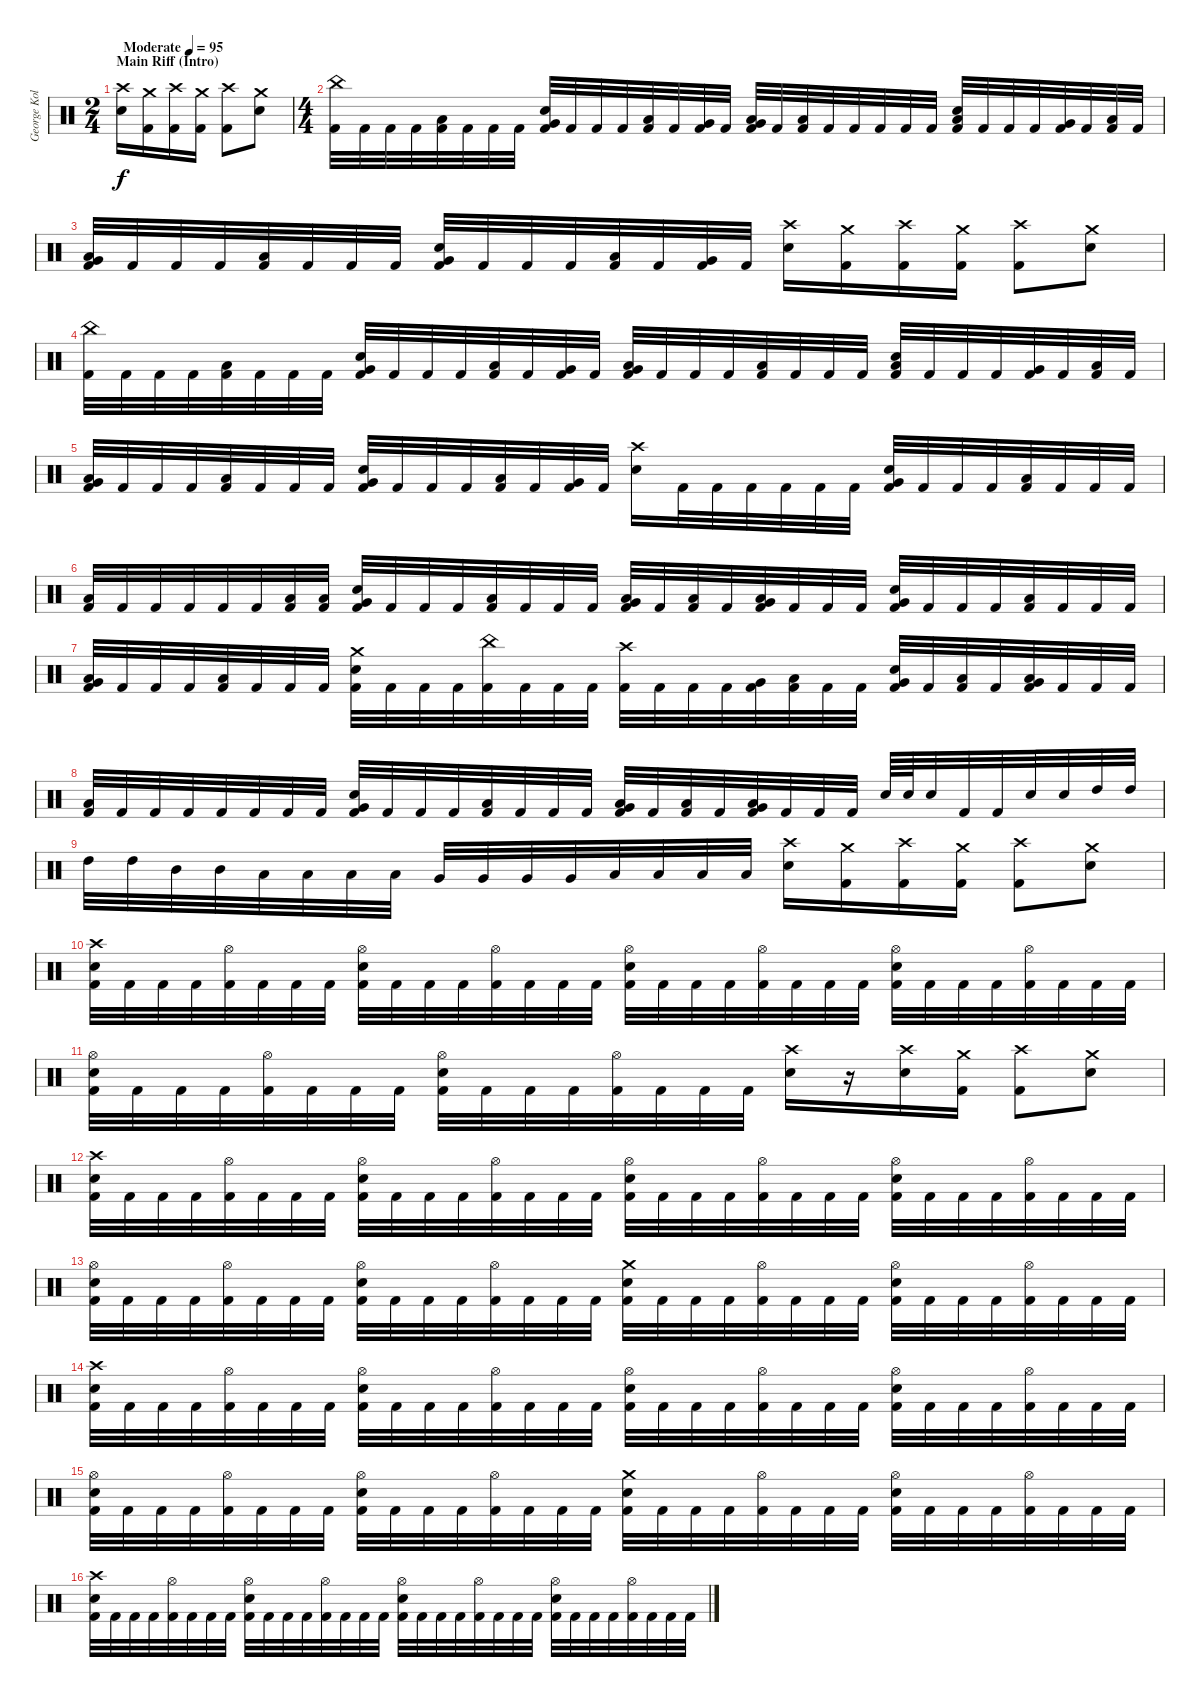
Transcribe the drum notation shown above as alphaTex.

\track ("George Kollias" "George Kol") {instrument percussion}
\staff {score}
\articulation defaults
\ts (2 4)
\section ("" "Main Riff (Intro)")
\tempo (95 "Moderate")
\clef neutral
\ks c
("Crash high (hit)" "Snare (hit) 2").16{dy f} ("Crash medium (hit)" "Kick (hit) 2").16 ("Crash high (hit)" "Kick (hit) 2").16 ("Crash medium (hit)" "Kick (hit) 2").16 ("Crash high (hit)" "Kick (hit) 2").8 ("Crash medium (hit)" "Snare (hit) 2").8 |
\ts (4 4)
("China (hit)" "Kick (hit) 2").32 "Kick (hit) 2".32 "Kick (hit) 2".32 "Kick (hit) 2".32 ("Low Floor Tom (hit)" "Kick (hit) 2").32 "Kick (hit) 2".32 "Kick (hit) 2".32 "Kick (hit) 2".32 ("Very Low Tom (hit)" "Snare (hit) 2" "Kick (hit) 2").32 "Kick (hit) 2".32 "Kick (hit) 2".32 "Kick (hit) 2".32 ("Low Tom (hit)" "Kick (hit) 2").32 "Kick (hit) 2".32 ("Very Low Tom (hit)" "Kick (hit) 2").32 "Kick (hit) 2".32 ("Very Low Tom (hit)" "Low Floor Tom (hit)" "Kick (hit) 2").32 "Kick (hit) 2".32 ("Low Floor Tom (hit)" "Kick (hit) 2").32 "Kick (hit) 2".32 "Kick (hit) 2".32 "Kick (hit) 2".32 "Kick (hit) 2".32 "Kick (hit) 2".32 ("Low Tom (hit)" "Snare (hit) 2" "Kick (hit) 2").32 "Kick (hit) 2".32 "Kick (hit) 2".32 "Kick (hit) 2".32 ("Very Low Tom (hit)" "Kick (hit) 2").32 "Kick (hit) 2".32 ("Low Floor Tom (hit)" "Kick (hit) 2").32 "Kick (hit) 2".32 |
("Very Low Tom (hit)" "Low Floor Tom (hit)" "Kick (hit) 2").32 "Kick (hit) 2".32 "Kick (hit) 2".32 "Kick (hit) 2".32 ("Low Floor Tom (hit)" "Kick (hit) 2").32 "Kick (hit) 2".32 "Kick (hit) 2".32 "Kick (hit) 2".32 ("Very Low Tom (hit)" "Snare (hit) 2" "Kick (hit) 2").32 "Kick (hit) 2".32 "Kick (hit) 2".32 "Kick (hit) 2".32 ("Low Tom (hit)" "Kick (hit) 2").32 "Kick (hit) 2".32 ("Very Low Tom (hit)" "Kick (hit) 2").32 "Kick (hit) 2".32 ("Crash high (hit)" "Snare (hit) 2").16 ("Crash medium (hit)" "Kick (hit) 2").16 ("Crash high (hit)" "Kick (hit) 2").16 ("Crash medium (hit)" "Kick (hit) 2").16 ("Crash high (hit)" "Kick (hit) 2").8 ("Crash medium (hit)" "Snare (hit) 2").8 |
("China (hit)" "Kick (hit) 2").32 "Kick (hit) 2".32 "Kick (hit) 2".32 "Kick (hit) 2".32 ("Low Floor Tom (hit)" "Kick (hit) 2").32 "Kick (hit) 2".32 "Kick (hit) 2".32 "Kick (hit) 2".32 ("Very Low Tom (hit)" "Snare (hit) 2" "Kick (hit) 2").32 "Kick (hit) 2".32 "Kick (hit) 2".32 "Kick (hit) 2".32 ("Low Tom (hit)" "Kick (hit) 2").32 "Kick (hit) 2".32 ("Very Low Tom (hit)" "Kick (hit) 2").32 "Kick (hit) 2".32 ("Very Low Tom (hit)" "Low Floor Tom (hit)" "Kick (hit) 2").32 "Kick (hit) 2".32 "Kick (hit) 2".32 "Kick (hit) 2".32 ("Low Floor Tom (hit)" "Kick (hit) 2").32 "Kick (hit) 2".32 "Kick (hit) 2".32 "Kick (hit) 2".32 ("Low Tom (hit)" "Snare (hit) 2" "Kick (hit) 2").32 "Kick (hit) 2".32 "Kick (hit) 2".32 "Kick (hit) 2".32 ("Very Low Tom (hit)" "Kick (hit) 2").32 "Kick (hit) 2".32 ("Low Floor Tom (hit)" "Kick (hit) 2").32 "Kick (hit) 2".32 |
("Very Low Tom (hit)" "Low Floor Tom (hit)" "Kick (hit) 2").32 "Kick (hit) 2".32 "Kick (hit) 2".32 "Kick (hit) 2".32 ("Low Floor Tom (hit)" "Kick (hit) 2").32 "Kick (hit) 2".32 "Kick (hit) 2".32 "Kick (hit) 2".32 ("Very Low Tom (hit)" "Snare (hit) 2" "Kick (hit) 2").32 "Kick (hit) 2".32 "Kick (hit) 2".32 "Kick (hit) 2".32 ("Low Tom (hit)" "Kick (hit) 2").32 "Kick (hit) 2".32 ("Very Low Tom (hit)" "Kick (hit) 2").32 "Kick (hit) 2".32 ("Crash high (hit)" "Snare (hit) 2").16 "Kick (hit) 2".32 "Kick (hit) 2".32 "Kick (hit) 2".32 "Kick (hit) 2".32 "Kick (hit) 2".32 "Kick (hit) 2".32 ("Very Low Tom (hit)" "Snare (hit) 2" "Kick (hit) 2").32 "Kick (hit) 2".32 "Kick (hit) 2".32 "Kick (hit) 2".32 ("Low Floor Tom (hit)" "Kick (hit) 2").32 "Kick (hit) 2".32 "Kick (hit) 2".32 "Kick (hit) 2".32 |
("Low Floor Tom (hit)" "Kick (hit) 2").32 "Kick (hit) 2".32 "Kick (hit) 2".32 "Kick (hit) 2".32 "Kick (hit) 2".32 "Kick (hit) 2".32 ("Low Floor Tom (hit)" "Kick (hit) 2").32 ("Low Floor Tom (hit)" "Kick (hit) 2").32 ("Very Low Tom (hit)" "Snare (hit) 2" "Kick (hit) 2").32 "Kick (hit) 2".32 "Kick (hit) 2".32 "Kick (hit) 2".32 ("Low Floor Tom (hit)" "Kick (hit) 2").32 "Kick (hit) 2".32 "Kick (hit) 2".32 "Kick (hit) 2".32 ("Very Low Tom (hit)" "Low Floor Tom (hit)" "Kick (hit) 2").32 "Kick (hit) 2".32 ("Low Floor Tom (hit)" "Kick (hit) 2").32 "Kick (hit) 2".32 ("Very Low Tom (hit)" "Low Floor Tom (hit)" "Kick (hit) 2").32 "Kick (hit) 2".32 "Kick (hit) 2".32 "Kick (hit) 2".32 ("Very Low Tom (hit)" "Snare (hit) 2" "Kick (hit) 2").32 "Kick (hit) 2".32 "Kick (hit) 2".32 "Kick (hit) 2".32 ("Low Floor Tom (hit)" "Kick (hit) 2").32 "Kick (hit) 2".32 "Kick (hit) 2".32 "Kick (hit) 2".32 |
("Very Low Tom (hit)" "Low Floor Tom (hit)" "Kick (hit) 2").32 "Kick (hit) 2".32 "Kick (hit) 2".32 "Kick (hit) 2".32 ("Low Floor Tom (hit)" "Kick (hit) 2").32 "Kick (hit) 2".32 "Kick (hit) 2".32 "Kick (hit) 2".32 ("Crash medium (hit)" "Snare (hit) 2" "Kick (hit) 2").32 "Kick (hit) 2".32 "Kick (hit) 2".32 "Kick (hit) 2".32 ("China (hit)" "Kick (hit) 2").32 "Kick (hit) 2".32 "Kick (hit) 2".32 "Kick (hit) 2".32 ("Crash high (hit)" "Kick (hit) 2").32 "Kick (hit) 2".32 "Kick (hit) 2".32 "Kick (hit) 2".32 ("Very Low Tom (hit)" "Kick (hit) 2").32 ("Low Floor Tom (hit)" "Kick (hit) 2").32 "Kick (hit) 2".32 "Kick (hit) 2".32 ("Very Low Tom (hit)" "Snare (hit) 2" "Kick (hit) 2").32 "Kick (hit) 2".32 ("Low Floor Tom (hit)" "Kick (hit) 2").32 "Kick (hit) 2".32 ("Very Low Tom (hit)" "Low Floor Tom (hit)" "Kick (hit) 2").32 "Kick (hit) 2".32 "Kick (hit) 2".32 "Kick (hit) 2".32 |
("Low Floor Tom (hit)" "Kick (hit) 2").32 "Kick (hit) 2".32 "Kick (hit) 2".32 "Kick (hit) 2".32 "Kick (hit) 2".32 "Kick (hit) 2".32 "Kick (hit) 2".32 "Kick (hit) 2".32 ("Very Low Tom (hit)" "Snare (hit) 2" "Kick (hit) 2").32 "Kick (hit) 2".32 "Kick (hit) 2".32 "Kick (hit) 2".32 ("Low Floor Tom (hit)" "Kick (hit) 2").32 "Kick (hit) 2".32 "Kick (hit) 2".32 "Kick (hit) 2".32 ("Very Low Tom (hit)" "Low Floor Tom (hit)" "Kick (hit) 2").32 "Kick (hit) 2".32 ("Low Floor Tom (hit)" "Kick (hit) 2").32 "Kick (hit) 2".32 ("Very Low Tom (hit)" "Low Floor Tom (hit)" "Kick (hit) 2").32 "Kick (hit) 2".32 "Kick (hit) 2".32 "Kick (hit) 2".32 "Snare (hit) 2".64 "Snare (hit) 2".64 "Snare (hit) 2".32 "Kick (hit) 2".32 "Kick (hit) 2".32 "Snare (hit) 2".32 "Snare (hit) 2".32 "High Tom (hit)".32 "High Tom (hit)".32 |
"High Tom (hit)".32 "High Tom (hit)".32 "Mid Tom (hit)".32 "Mid Tom (hit)".32 "Low Tom (hit)".32 "Low Tom (hit)".32 "Low Tom (hit)".32 "Low Tom (hit)".32 "Very Low Tom (hit)".32 "Very Low Tom (hit)".32 "Very Low Tom (hit)".32 "Very Low Tom (hit)".32 "Low Floor Tom (hit)".32 "Low Floor Tom (hit)".32 "Low Floor Tom (hit)".32 "Low Floor Tom (hit)".32 ("Crash high (hit)" "Snare (hit) 2").16 ("Crash medium (hit)" "Kick (hit) 2").16 ("Crash high (hit)" "Kick (hit) 2").16 ("Crash medium (hit)" "Kick (hit) 2").16 ("Crash high (hit)" "Kick (hit) 2").8 ("Crash medium (hit)" "Snare (hit) 2").8 |
("Crash high (hit)" "Snare (hit) 2" "Kick (hit) 2").32 "Kick (hit) 2".32 "Kick (hit) 2".32 "Kick (hit) 2".32 ("Hi-Hat (open)" "Kick (hit) 2").32 "Kick (hit) 2".32 "Kick (hit) 2".32 "Kick (hit) 2".32 ("Hi-Hat (open)" "Snare (hit) 2" "Kick (hit) 2").32 "Kick (hit) 2".32 "Kick (hit) 2".32 "Kick (hit) 2".32 ("Hi-Hat (open)" "Kick (hit) 2").32 "Kick (hit) 2".32 "Kick (hit) 2".32 "Kick (hit) 2".32 ("Hi-Hat (open)" "Snare (hit) 2" "Kick (hit) 2").32 "Kick (hit) 2".32 "Kick (hit) 2".32 "Kick (hit) 2".32 ("Hi-Hat (open)" "Kick (hit) 2").32 "Kick (hit) 2".32 "Kick (hit) 2".32 "Kick (hit) 2".32 ("Hi-Hat (open)" "Snare (hit) 2" "Kick (hit) 2").32 "Kick (hit) 2".32 "Kick (hit) 2".32 "Kick (hit) 2".32 ("Hi-Hat (open)" "Kick (hit) 2").32 "Kick (hit) 2".32 "Kick (hit) 2".32 "Kick (hit) 2".32 |
("Hi-Hat (open)" "Snare (hit) 2" "Kick (hit) 2").32 "Kick (hit) 2".32 "Kick (hit) 2".32 "Kick (hit) 2".32 ("Hi-Hat (open)" "Kick (hit) 2").32 "Kick (hit) 2".32 "Kick (hit) 2".32 "Kick (hit) 2".32 ("Hi-Hat (open)" "Snare (hit) 2" "Kick (hit) 2").32 "Kick (hit) 2".32 "Kick (hit) 2".32 "Kick (hit) 2".32 ("Hi-Hat (open)" "Kick (hit) 2").32 "Kick (hit) 2".32 "Kick (hit) 2".32 "Kick (hit) 2".32 ("Crash high (hit)" "Snare (hit) 2").16 r.16 ("Crash high (hit)" "Snare (hit) 2").16 ("Crash medium (hit)" "Kick (hit) 2").16 ("Crash high (hit)" "Kick (hit) 2").8 ("Crash medium (hit)" "Snare (hit) 2").8 |
("Crash high (hit)" "Snare (hit) 2" "Kick (hit) 2").32 "Kick (hit) 2".32 "Kick (hit) 2".32 "Kick (hit) 2".32 ("Hi-Hat (open)" "Kick (hit) 2").32 "Kick (hit) 2".32 "Kick (hit) 2".32 "Kick (hit) 2".32 ("Hi-Hat (open)" "Snare (hit) 2" "Kick (hit) 2").32 "Kick (hit) 2".32 "Kick (hit) 2".32 "Kick (hit) 2".32 ("Hi-Hat (open)" "Kick (hit) 2").32 "Kick (hit) 2".32 "Kick (hit) 2".32 "Kick (hit) 2".32 ("Hi-Hat (open)" "Snare (hit) 2" "Kick (hit) 2").32 "Kick (hit) 2".32 "Kick (hit) 2".32 "Kick (hit) 2".32 ("Hi-Hat (open)" "Kick (hit) 2").32 "Kick (hit) 2".32 "Kick (hit) 2".32 "Kick (hit) 2".32 ("Hi-Hat (open)" "Snare (hit) 2" "Kick (hit) 2").32 "Kick (hit) 2".32 "Kick (hit) 2".32 "Kick (hit) 2".32 ("Hi-Hat (open)" "Kick (hit) 2").32 "Kick (hit) 2".32 "Kick (hit) 2".32 "Kick (hit) 2".32 |
("Hi-Hat (open)" "Snare (hit) 2" "Kick (hit) 2").32 "Kick (hit) 2".32 "Kick (hit) 2".32 "Kick (hit) 2".32 ("Hi-Hat (open)" "Kick (hit) 2").32 "Kick (hit) 2".32 "Kick (hit) 2".32 "Kick (hit) 2".32 ("Hi-Hat (open)" "Snare (hit) 2" "Kick (hit) 2").32 "Kick (hit) 2".32 "Kick (hit) 2".32 "Kick (hit) 2".32 ("Hi-Hat (open)" "Kick (hit) 2").32 "Kick (hit) 2".32 "Kick (hit) 2".32 "Kick (hit) 2".32 ("Crash medium (hit)" "Snare (hit) 2" "Kick (hit) 2").32 "Kick (hit) 2".32 "Kick (hit) 2".32 "Kick (hit) 2".32 ("Hi-Hat (open)" "Kick (hit) 2").32 "Kick (hit) 2".32 "Kick (hit) 2".32 "Kick (hit) 2".32 ("Hi-Hat (open)" "Snare (hit) 2" "Kick (hit) 2").32 "Kick (hit) 2".32 "Kick (hit) 2".32 "Kick (hit) 2".32 ("Hi-Hat (open)" "Kick (hit) 2").32 "Kick (hit) 2".32 "Kick (hit) 2".32 "Kick (hit) 2".32 |
("Crash high (hit)" "Snare (hit) 2" "Kick (hit) 2").32 "Kick (hit) 2".32 "Kick (hit) 2".32 "Kick (hit) 2".32 ("Hi-Hat (open)" "Kick (hit) 2").32 "Kick (hit) 2".32 "Kick (hit) 2".32 "Kick (hit) 2".32 ("Hi-Hat (open)" "Snare (hit) 2" "Kick (hit) 2").32 "Kick (hit) 2".32 "Kick (hit) 2".32 "Kick (hit) 2".32 ("Hi-Hat (open)" "Kick (hit) 2").32 "Kick (hit) 2".32 "Kick (hit) 2".32 "Kick (hit) 2".32 ("Hi-Hat (open)" "Snare (hit) 2" "Kick (hit) 2").32 "Kick (hit) 2".32 "Kick (hit) 2".32 "Kick (hit) 2".32 ("Hi-Hat (open)" "Kick (hit) 2").32 "Kick (hit) 2".32 "Kick (hit) 2".32 "Kick (hit) 2".32 ("Hi-Hat (open)" "Snare (hit) 2" "Kick (hit) 2").32 "Kick (hit) 2".32 "Kick (hit) 2".32 "Kick (hit) 2".32 ("Hi-Hat (open)" "Kick (hit) 2").32 "Kick (hit) 2".32 "Kick (hit) 2".32 "Kick (hit) 2".32 |
("Hi-Hat (open)" "Snare (hit) 2" "Kick (hit) 2").32 "Kick (hit) 2".32 "Kick (hit) 2".32 "Kick (hit) 2".32 ("Hi-Hat (open)" "Kick (hit) 2").32 "Kick (hit) 2".32 "Kick (hit) 2".32 "Kick (hit) 2".32 ("Hi-Hat (open)" "Snare (hit) 2" "Kick (hit) 2").32 "Kick (hit) 2".32 "Kick (hit) 2".32 "Kick (hit) 2".32 ("Hi-Hat (open)" "Kick (hit) 2").32 "Kick (hit) 2".32 "Kick (hit) 2".32 "Kick (hit) 2".32 ("Crash medium (hit)" "Snare (hit) 2" "Kick (hit) 2").32 "Kick (hit) 2".32 "Kick (hit) 2".32 "Kick (hit) 2".32 ("Hi-Hat (open)" "Kick (hit) 2").32 "Kick (hit) 2".32 "Kick (hit) 2".32 "Kick (hit) 2".32 ("Hi-Hat (open)" "Snare (hit) 2" "Kick (hit) 2").32 "Kick (hit) 2".32 "Kick (hit) 2".32 "Kick (hit) 2".32 ("Hi-Hat (open)" "Kick (hit) 2").32 "Kick (hit) 2".32 "Kick (hit) 2".32 "Kick (hit) 2".32 |
("Crash high (hit)" "Snare (hit) 2" "Kick (hit) 2").32 "Kick (hit) 2".32 "Kick (hit) 2".32 "Kick (hit) 2".32 ("Hi-Hat (open)" "Kick (hit) 2").32 "Kick (hit) 2".32 "Kick (hit) 2".32 "Kick (hit) 2".32 ("Hi-Hat (open)" "Snare (hit) 2" "Kick (hit) 2").32 "Kick (hit) 2".32 "Kick (hit) 2".32 "Kick (hit) 2".32 ("Hi-Hat (open)" "Kick (hit) 2").32 "Kick (hit) 2".32 "Kick (hit) 2".32 "Kick (hit) 2".32 ("Hi-Hat (open)" "Snare (hit) 2" "Kick (hit) 2").32 "Kick (hit) 2".32 "Kick (hit) 2".32 "Kick (hit) 2".32 ("Hi-Hat (open)" "Kick (hit) 2").32 "Kick (hit) 2".32 "Kick (hit) 2".32 "Kick (hit) 2".32 ("Hi-Hat (open)" "Snare (hit) 2" "Kick (hit) 2").32 "Kick (hit) 2".32 "Kick (hit) 2".32 "Kick (hit) 2".32 ("Hi-Hat (open)" "Kick (hit) 2").32 "Kick (hit) 2".32 "Kick (hit) 2".32 "Kick (hit) 2".32
